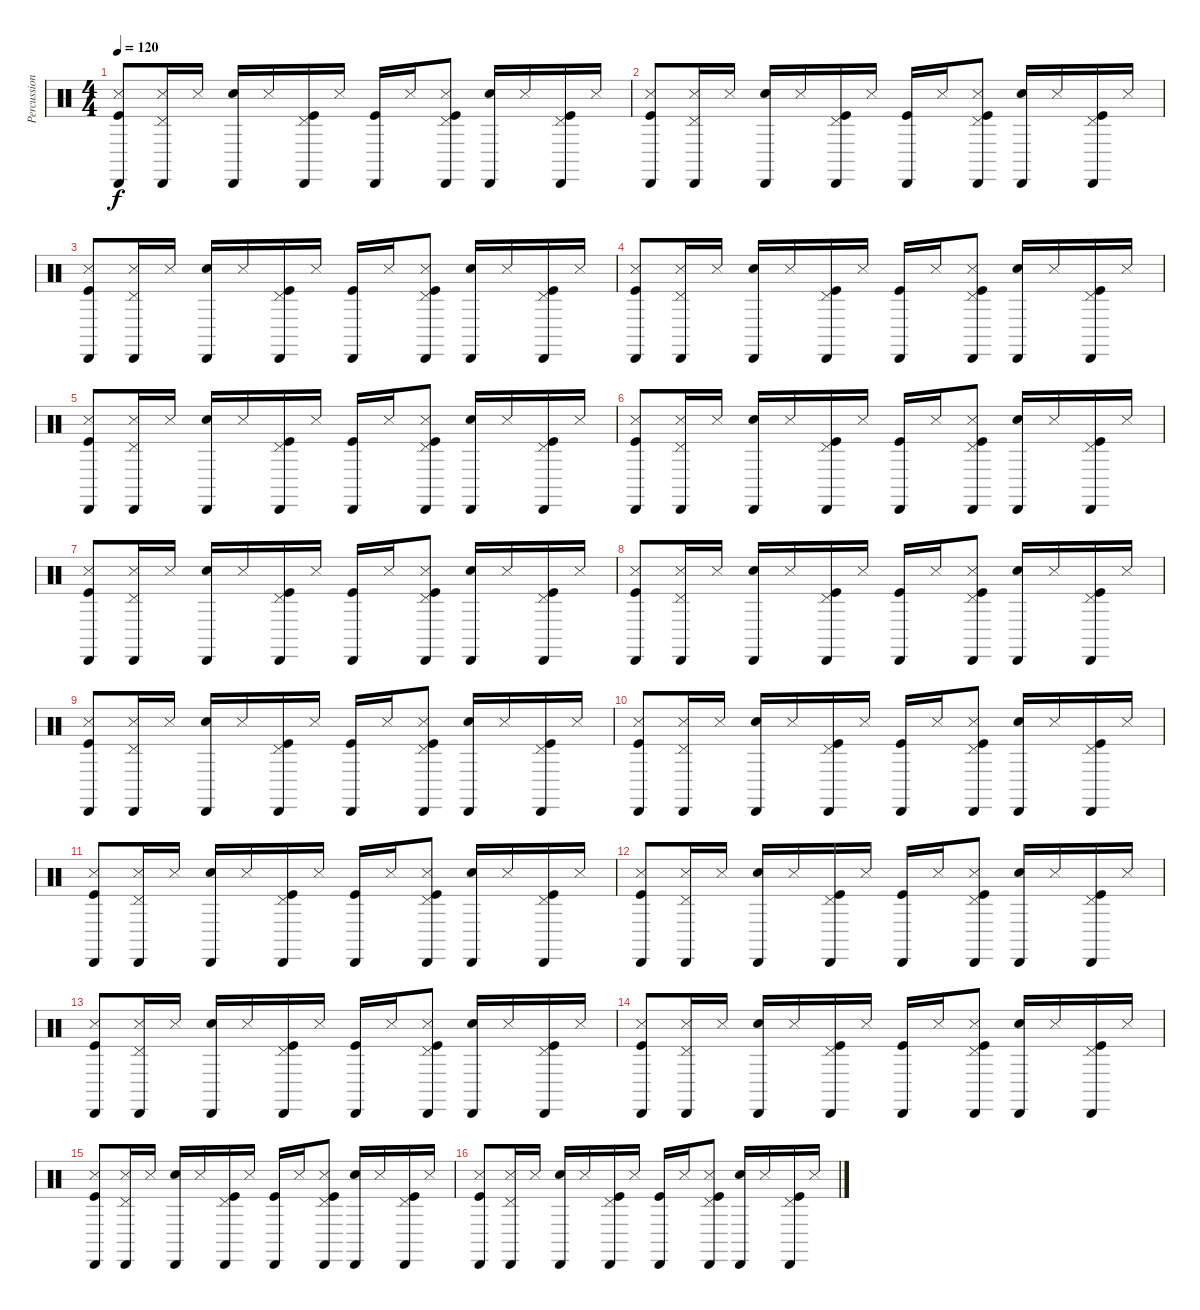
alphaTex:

\track ("Percussions" "Percussion") {instrument percussion}
\staff {score}
\articulation defaults
\ts (4 4)
\tempo 120
\clef neutral
\ks c
("Kick (hit)" "Cabasa (hit)" "Metronome (hit)").8{dy f} ("Cabasa (hit)" "Pedal Hi-Hat (hit)" "Metronome (hit)").16 "Metronome (hit)".16 ("Snare (hit) 2" "Cabasa (hit)").16 "Metronome (hit)".16 ("Kick (hit)" "Cabasa (hit)" "Pedal Hi-Hat (hit)").16 "Metronome (hit)".16 ("Kick (hit)" "Cabasa (hit)").16 "Metronome (hit)".16 ("Kick (hit)" "Cabasa (hit)" "Pedal Hi-Hat (hit)" "Metronome (hit)").8 ("Snare (hit) 2" "Cabasa (hit)").16 "Metronome (hit)".16 ("Kick (hit)" "Cabasa (hit)" "Pedal Hi-Hat (hit)").16 "Metronome (hit)".16 |
("Metronome (hit)" "Cabasa (hit)" "Kick (hit)").8 ("Cabasa (hit)" "Pedal Hi-Hat (hit)" "Metronome (hit)").16 "Metronome (hit)".16 ("Snare (hit) 2" "Cabasa (hit)").16 "Metronome (hit)".16 ("Kick (hit)" "Cabasa (hit)" "Pedal Hi-Hat (hit)").16 "Metronome (hit)".16 ("Kick (hit)" "Cabasa (hit)").16 "Metronome (hit)".16 ("Kick (hit)" "Cabasa (hit)" "Pedal Hi-Hat (hit)" "Metronome (hit)").8 ("Snare (hit) 2" "Cabasa (hit)").16 "Metronome (hit)".16 ("Kick (hit)" "Cabasa (hit)" "Pedal Hi-Hat (hit)").16 "Metronome (hit)".16 |
("Kick (hit)" "Cabasa (hit)" "Metronome (hit)").8 ("Cabasa (hit)" "Pedal Hi-Hat (hit)" "Metronome (hit)").16 "Metronome (hit)".16 ("Snare (hit) 2" "Cabasa (hit)").16 "Metronome (hit)".16 ("Kick (hit)" "Cabasa (hit)" "Pedal Hi-Hat (hit)").16 "Metronome (hit)".16 ("Kick (hit)" "Cabasa (hit)").16 "Metronome (hit)".16 ("Kick (hit)" "Cabasa (hit)" "Pedal Hi-Hat (hit)" "Metronome (hit)").8 ("Snare (hit) 2" "Cabasa (hit)").16 "Metronome (hit)".16 ("Kick (hit)" "Cabasa (hit)" "Pedal Hi-Hat (hit)").16 "Metronome (hit)".16 |
("Metronome (hit)" "Cabasa (hit)" "Kick (hit)").8 ("Cabasa (hit)" "Pedal Hi-Hat (hit)" "Metronome (hit)").16 "Metronome (hit)".16 ("Snare (hit) 2" "Cabasa (hit)").16 "Metronome (hit)".16 ("Kick (hit)" "Cabasa (hit)" "Pedal Hi-Hat (hit)").16 "Metronome (hit)".16 ("Kick (hit)" "Cabasa (hit)").16 "Metronome (hit)".16 ("Kick (hit)" "Cabasa (hit)" "Pedal Hi-Hat (hit)" "Metronome (hit)").8 ("Snare (hit) 2" "Cabasa (hit)").16 "Metronome (hit)".16 ("Kick (hit)" "Cabasa (hit)" "Pedal Hi-Hat (hit)").16 "Metronome (hit)".16 |
("Kick (hit)" "Cabasa (hit)" "Metronome (hit)").8 ("Cabasa (hit)" "Pedal Hi-Hat (hit)" "Metronome (hit)").16 "Metronome (hit)".16 ("Snare (hit) 2" "Cabasa (hit)").16 "Metronome (hit)".16 ("Kick (hit)" "Cabasa (hit)" "Pedal Hi-Hat (hit)").16 "Metronome (hit)".16 ("Kick (hit)" "Cabasa (hit)").16 "Metronome (hit)".16 ("Kick (hit)" "Cabasa (hit)" "Pedal Hi-Hat (hit)" "Metronome (hit)").8 ("Snare (hit) 2" "Cabasa (hit)").16 "Metronome (hit)".16 ("Kick (hit)" "Cabasa (hit)" "Pedal Hi-Hat (hit)").16 "Metronome (hit)".16 |
("Metronome (hit)" "Cabasa (hit)" "Kick (hit)").8 ("Cabasa (hit)" "Pedal Hi-Hat (hit)" "Metronome (hit)").16 "Metronome (hit)".16 ("Snare (hit) 2" "Cabasa (hit)").16 "Metronome (hit)".16 ("Kick (hit)" "Cabasa (hit)" "Pedal Hi-Hat (hit)").16 "Metronome (hit)".16 ("Kick (hit)" "Cabasa (hit)").16 "Metronome (hit)".16 ("Kick (hit)" "Cabasa (hit)" "Pedal Hi-Hat (hit)" "Metronome (hit)").8 ("Snare (hit) 2" "Cabasa (hit)").16 "Metronome (hit)".16 ("Kick (hit)" "Cabasa (hit)" "Pedal Hi-Hat (hit)").16 "Metronome (hit)".16 |
("Kick (hit)" "Cabasa (hit)" "Metronome (hit)").8 ("Cabasa (hit)" "Pedal Hi-Hat (hit)" "Metronome (hit)").16 "Metronome (hit)".16 ("Snare (hit) 2" "Cabasa (hit)").16 "Metronome (hit)".16 ("Kick (hit)" "Cabasa (hit)" "Pedal Hi-Hat (hit)").16 "Metronome (hit)".16 ("Kick (hit)" "Cabasa (hit)").16 "Metronome (hit)".16 ("Kick (hit)" "Cabasa (hit)" "Pedal Hi-Hat (hit)" "Metronome (hit)").8 ("Snare (hit) 2" "Cabasa (hit)").16 "Metronome (hit)".16 ("Kick (hit)" "Cabasa (hit)" "Pedal Hi-Hat (hit)").16 "Metronome (hit)".16 |
("Metronome (hit)" "Cabasa (hit)" "Kick (hit)").8 ("Cabasa (hit)" "Pedal Hi-Hat (hit)" "Metronome (hit)").16 "Metronome (hit)".16 ("Snare (hit) 2" "Cabasa (hit)").16 "Metronome (hit)".16 ("Kick (hit)" "Cabasa (hit)" "Pedal Hi-Hat (hit)").16 "Metronome (hit)".16 ("Kick (hit)" "Cabasa (hit)").16 "Metronome (hit)".16 ("Kick (hit)" "Cabasa (hit)" "Pedal Hi-Hat (hit)" "Metronome (hit)").8 ("Snare (hit) 2" "Cabasa (hit)").16 "Metronome (hit)".16 ("Kick (hit)" "Cabasa (hit)" "Pedal Hi-Hat (hit)").16 "Metronome (hit)".16 |
("Kick (hit)" "Cabasa (hit)" "Metronome (hit)").8 ("Cabasa (hit)" "Pedal Hi-Hat (hit)" "Metronome (hit)").16 "Metronome (hit)".16 ("Snare (hit) 2" "Cabasa (hit)").16 "Metronome (hit)".16 ("Kick (hit)" "Cabasa (hit)" "Pedal Hi-Hat (hit)").16 "Metronome (hit)".16 ("Kick (hit)" "Cabasa (hit)").16 "Metronome (hit)".16 ("Kick (hit)" "Cabasa (hit)" "Pedal Hi-Hat (hit)" "Metronome (hit)").8 ("Snare (hit) 2" "Cabasa (hit)").16 "Metronome (hit)".16 ("Kick (hit)" "Cabasa (hit)" "Pedal Hi-Hat (hit)").16 "Metronome (hit)".16 |
("Metronome (hit)" "Cabasa (hit)" "Kick (hit)").8 ("Cabasa (hit)" "Pedal Hi-Hat (hit)" "Metronome (hit)").16 "Metronome (hit)".16 ("Snare (hit) 2" "Cabasa (hit)").16 "Metronome (hit)".16 ("Kick (hit)" "Cabasa (hit)" "Pedal Hi-Hat (hit)").16 "Metronome (hit)".16 ("Kick (hit)" "Cabasa (hit)").16 "Metronome (hit)".16 ("Kick (hit)" "Cabasa (hit)" "Pedal Hi-Hat (hit)" "Metronome (hit)").8 ("Snare (hit) 2" "Cabasa (hit)").16 "Metronome (hit)".16 ("Kick (hit)" "Cabasa (hit)" "Pedal Hi-Hat (hit)").16 "Metronome (hit)".16 |
("Kick (hit)" "Cabasa (hit)" "Metronome (hit)").8 ("Cabasa (hit)" "Pedal Hi-Hat (hit)" "Metronome (hit)").16 "Metronome (hit)".16 ("Snare (hit) 2" "Cabasa (hit)").16 "Metronome (hit)".16 ("Kick (hit)" "Cabasa (hit)" "Pedal Hi-Hat (hit)").16 "Metronome (hit)".16 ("Kick (hit)" "Cabasa (hit)").16 "Metronome (hit)".16 ("Kick (hit)" "Cabasa (hit)" "Pedal Hi-Hat (hit)" "Metronome (hit)").8 ("Snare (hit) 2" "Cabasa (hit)").16 "Metronome (hit)".16 ("Kick (hit)" "Cabasa (hit)" "Pedal Hi-Hat (hit)").16 "Metronome (hit)".16 |
("Metronome (hit)" "Cabasa (hit)" "Kick (hit)").8 ("Cabasa (hit)" "Pedal Hi-Hat (hit)" "Metronome (hit)").16 "Metronome (hit)".16 ("Snare (hit) 2" "Cabasa (hit)").16 "Metronome (hit)".16 ("Kick (hit)" "Cabasa (hit)" "Pedal Hi-Hat (hit)").16 "Metronome (hit)".16 ("Kick (hit)" "Cabasa (hit)").16 "Metronome (hit)".16 ("Kick (hit)" "Cabasa (hit)" "Pedal Hi-Hat (hit)" "Metronome (hit)").8 ("Snare (hit) 2" "Cabasa (hit)").16 "Metronome (hit)".16 ("Kick (hit)" "Cabasa (hit)" "Pedal Hi-Hat (hit)").16 "Metronome (hit)".16 |
("Kick (hit)" "Cabasa (hit)" "Metronome (hit)").8 ("Cabasa (hit)" "Pedal Hi-Hat (hit)" "Metronome (hit)").16 "Metronome (hit)".16 ("Snare (hit) 2" "Cabasa (hit)").16 "Metronome (hit)".16 ("Kick (hit)" "Cabasa (hit)" "Pedal Hi-Hat (hit)").16 "Metronome (hit)".16 ("Kick (hit)" "Cabasa (hit)").16 "Metronome (hit)".16 ("Kick (hit)" "Cabasa (hit)" "Pedal Hi-Hat (hit)" "Metronome (hit)").8 ("Snare (hit) 2" "Cabasa (hit)").16 "Metronome (hit)".16 ("Kick (hit)" "Cabasa (hit)" "Pedal Hi-Hat (hit)").16 "Metronome (hit)".16 |
("Metronome (hit)" "Cabasa (hit)" "Kick (hit)").8 ("Cabasa (hit)" "Pedal Hi-Hat (hit)" "Metronome (hit)").16 "Metronome (hit)".16 ("Snare (hit) 2" "Cabasa (hit)").16 "Metronome (hit)".16 ("Kick (hit)" "Cabasa (hit)" "Pedal Hi-Hat (hit)").16 "Metronome (hit)".16 ("Kick (hit)" "Cabasa (hit)").16 "Metronome (hit)".16 ("Kick (hit)" "Cabasa (hit)" "Pedal Hi-Hat (hit)" "Metronome (hit)").8 ("Snare (hit) 2" "Cabasa (hit)").16 "Metronome (hit)".16 ("Kick (hit)" "Cabasa (hit)" "Pedal Hi-Hat (hit)").16 "Metronome (hit)".16 |
("Kick (hit)" "Cabasa (hit)" "Metronome (hit)").8 ("Cabasa (hit)" "Pedal Hi-Hat (hit)" "Metronome (hit)").16 "Metronome (hit)".16 ("Snare (hit) 2" "Cabasa (hit)").16 "Metronome (hit)".16 ("Kick (hit)" "Cabasa (hit)" "Pedal Hi-Hat (hit)").16 "Metronome (hit)".16 ("Kick (hit)" "Cabasa (hit)").16 "Metronome (hit)".16 ("Kick (hit)" "Cabasa (hit)" "Pedal Hi-Hat (hit)" "Metronome (hit)").8 ("Snare (hit) 2" "Cabasa (hit)").16 "Metronome (hit)".16 ("Kick (hit)" "Cabasa (hit)" "Pedal Hi-Hat (hit)").16 "Metronome (hit)".16 |
("Metronome (hit)" "Cabasa (hit)" "Kick (hit)").8 ("Cabasa (hit)" "Pedal Hi-Hat (hit)" "Metronome (hit)").16 "Metronome (hit)".16 ("Snare (hit) 2" "Cabasa (hit)").16 "Metronome (hit)".16 ("Kick (hit)" "Cabasa (hit)" "Pedal Hi-Hat (hit)").16 "Metronome (hit)".16 ("Kick (hit)" "Cabasa (hit)").16 "Metronome (hit)".16 ("Kick (hit)" "Cabasa (hit)" "Pedal Hi-Hat (hit)" "Metronome (hit)").8 ("Snare (hit) 2" "Cabasa (hit)").16 "Metronome (hit)".16 ("Kick (hit)" "Cabasa (hit)" "Pedal Hi-Hat (hit)").16 "Metronome (hit)".16
